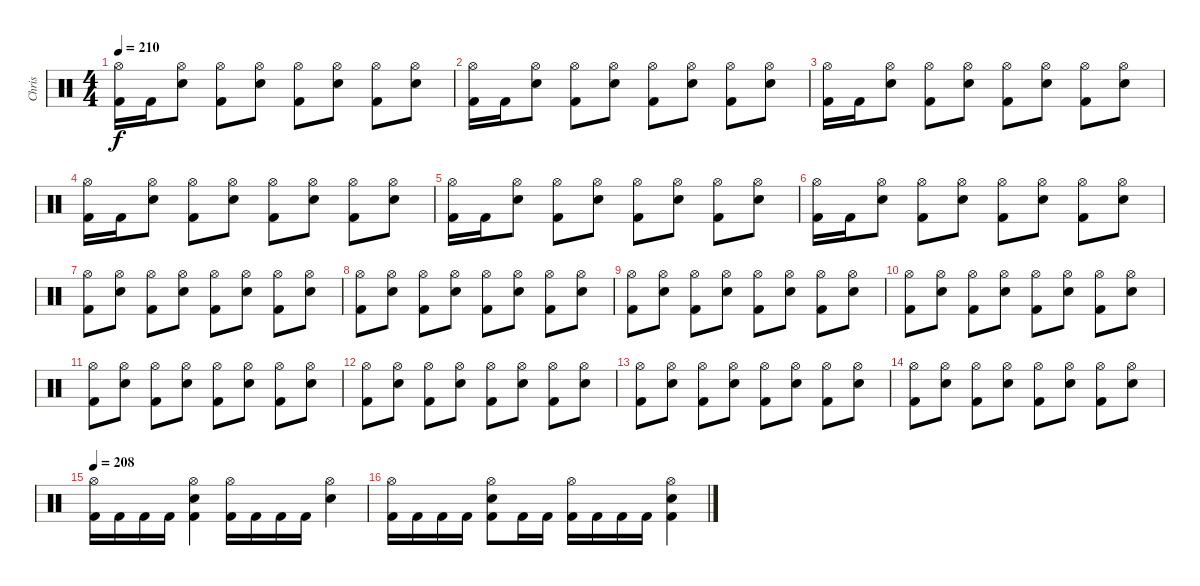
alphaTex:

\track ("Chris" "Chris") {instrument percussion}
\staff {score}
\articulation defaults
\ts (4 4)
\tempo 210
\clef neutral
\ks c
("Hi-Hat (open)" "Kick (hit) 2").16{dy f} "Kick (hit) 2".16 ("Hi-Hat (open)" "Snare (hit) 2").8 ("Hi-Hat (open)" "Kick (hit) 2").8 ("Hi-Hat (open)" "Electric Snare (hit)").8 ("Hi-Hat (open)" "Kick (hit) 2").8 ("Hi-Hat (open)" "Electric Snare (hit)").8 ("Hi-Hat (open)" "Kick (hit) 2").8 ("Hi-Hat (open)" "Electric Snare (hit)").8 |
("Hi-Hat (open)" "Kick (hit) 2").16 "Kick (hit) 2".16 ("Hi-Hat (open)" "Snare (hit) 2").8 ("Hi-Hat (open)" "Kick (hit) 2").8 ("Hi-Hat (open)" "Electric Snare (hit)").8 ("Hi-Hat (open)" "Kick (hit) 2").8 ("Hi-Hat (open)" "Electric Snare (hit)").8 ("Hi-Hat (open)" "Kick (hit) 2").8 ("Hi-Hat (open)" "Electric Snare (hit)").8 |
("Hi-Hat (open)" "Kick (hit) 2").16 "Kick (hit) 2".16 ("Hi-Hat (open)" "Snare (hit) 2").8 ("Hi-Hat (open)" "Kick (hit) 2").8 ("Hi-Hat (open)" "Electric Snare (hit)").8 ("Hi-Hat (open)" "Kick (hit) 2").8 ("Hi-Hat (open)" "Electric Snare (hit)").8 ("Hi-Hat (open)" "Kick (hit) 2").8 ("Hi-Hat (open)" "Electric Snare (hit)").8 |
("Hi-Hat (open)" "Kick (hit) 2").16 "Kick (hit) 2".16 ("Hi-Hat (open)" "Snare (hit) 2").8 ("Hi-Hat (open)" "Kick (hit) 2").8 ("Hi-Hat (open)" "Electric Snare (hit)").8 ("Hi-Hat (open)" "Kick (hit) 2").8 ("Hi-Hat (open)" "Electric Snare (hit)").8 ("Hi-Hat (open)" "Kick (hit) 2").8 ("Hi-Hat (open)" "Electric Snare (hit)").8 |
("Hi-Hat (open)" "Kick (hit) 2").16 "Kick (hit) 2".16 ("Hi-Hat (open)" "Snare (hit) 2").8 ("Hi-Hat (open)" "Kick (hit) 2").8 ("Hi-Hat (open)" "Electric Snare (hit)").8 ("Hi-Hat (open)" "Kick (hit) 2").8 ("Hi-Hat (open)" "Electric Snare (hit)").8 ("Hi-Hat (open)" "Kick (hit) 2").8 ("Hi-Hat (open)" "Electric Snare (hit)").8 |
("Hi-Hat (open)" "Kick (hit) 2").16 "Kick (hit) 2".16 ("Hi-Hat (open)" "Snare (hit) 2").8 ("Hi-Hat (open)" "Kick (hit) 2").8 ("Hi-Hat (open)" "Electric Snare (hit)").8 ("Hi-Hat (open)" "Kick (hit) 2").8 ("Hi-Hat (open)" "Electric Snare (hit)").8 ("Hi-Hat (open)" "Kick (hit) 2").8 ("Hi-Hat (open)" "Electric Snare (hit)").8 |
("Hi-Hat (open)" "Kick (hit) 2").8 ("Hi-Hat (open)" "Electric Snare (hit)").8 ("Hi-Hat (open)" "Kick (hit) 2").8 ("Hi-Hat (open)" "Electric Snare (hit)").8 ("Hi-Hat (open)" "Kick (hit) 2").8 ("Hi-Hat (open)" "Electric Snare (hit)").8 ("Hi-Hat (open)" "Kick (hit) 2").8 ("Hi-Hat (open)" "Electric Snare (hit)").8 |
("Hi-Hat (open)" "Kick (hit) 2").8 ("Hi-Hat (open)" "Electric Snare (hit)").8 ("Hi-Hat (open)" "Kick (hit) 2").8 ("Hi-Hat (open)" "Electric Snare (hit)").8 ("Hi-Hat (open)" "Kick (hit) 2").8 ("Hi-Hat (open)" "Electric Snare (hit)").8 ("Hi-Hat (open)" "Kick (hit) 2").8 ("Hi-Hat (open)" "Electric Snare (hit)").8 |
("Hi-Hat (open)" "Kick (hit) 2").8 ("Hi-Hat (open)" "Electric Snare (hit)").8 ("Hi-Hat (open)" "Kick (hit) 2").8 ("Hi-Hat (open)" "Electric Snare (hit)").8 ("Hi-Hat (open)" "Kick (hit) 2").8 ("Hi-Hat (open)" "Electric Snare (hit)").8 ("Hi-Hat (open)" "Kick (hit) 2").8 ("Hi-Hat (open)" "Electric Snare (hit)").8 |
("Hi-Hat (open)" "Kick (hit) 2").8 ("Hi-Hat (open)" "Electric Snare (hit)").8 ("Hi-Hat (open)" "Kick (hit) 2").8 ("Hi-Hat (open)" "Electric Snare (hit)").8 ("Hi-Hat (open)" "Kick (hit) 2").8 ("Hi-Hat (open)" "Electric Snare (hit)").8 ("Hi-Hat (open)" "Kick (hit) 2").8 ("Hi-Hat (open)" "Electric Snare (hit)").8 |
("Hi-Hat (open)" "Kick (hit) 2").8 ("Hi-Hat (open)" "Electric Snare (hit)").8 ("Hi-Hat (open)" "Kick (hit) 2").8 ("Hi-Hat (open)" "Electric Snare (hit)").8 ("Hi-Hat (open)" "Kick (hit) 2").8 ("Hi-Hat (open)" "Electric Snare (hit)").8 ("Hi-Hat (open)" "Kick (hit) 2").8 ("Hi-Hat (open)" "Electric Snare (hit)").8 |
("Hi-Hat (open)" "Kick (hit) 2").8 ("Hi-Hat (open)" "Electric Snare (hit)").8 ("Hi-Hat (open)" "Kick (hit) 2").8 ("Hi-Hat (open)" "Electric Snare (hit)").8 ("Hi-Hat (open)" "Kick (hit) 2").8 ("Hi-Hat (open)" "Electric Snare (hit)").8 ("Hi-Hat (open)" "Kick (hit) 2").8 ("Hi-Hat (open)" "Electric Snare (hit)").8 |
("Hi-Hat (open)" "Kick (hit) 2").8 ("Hi-Hat (open)" "Electric Snare (hit)").8 ("Hi-Hat (open)" "Kick (hit) 2").8 ("Hi-Hat (open)" "Electric Snare (hit)").8 ("Hi-Hat (open)" "Kick (hit) 2").8 ("Hi-Hat (open)" "Electric Snare (hit)").8 ("Hi-Hat (open)" "Kick (hit) 2").8 ("Hi-Hat (open)" "Electric Snare (hit)").8 |
("Hi-Hat (open)" "Kick (hit) 2").8 ("Hi-Hat (open)" "Electric Snare (hit)").8 ("Hi-Hat (open)" "Kick (hit) 2").8 ("Hi-Hat (open)" "Electric Snare (hit)").8 ("Hi-Hat (open)" "Kick (hit) 2").8 ("Hi-Hat (open)" "Electric Snare (hit)").8 ("Hi-Hat (open)" "Kick (hit) 2").8 ("Hi-Hat (open)" "Electric Snare (hit)").8 |
\tempo 208
("Hi-Hat (open)" "Kick (hit) 2").16 "Kick (hit) 2".16 "Kick (hit) 2".16 "Kick (hit) 2".16 ("Hi-Hat (open)" "Kick (hit) 2" "Electric Snare (hit)").4 ("Hi-Hat (open)" "Kick (hit) 2").16 "Kick (hit) 2".16 "Kick (hit) 2".16 "Kick (hit) 2".16 ("Hi-Hat (open)" "Electric Snare (hit)").4 |
("Hi-Hat (open)" "Kick (hit) 2").16 "Kick (hit) 2".16 "Kick (hit) 2".16 "Kick (hit) 2".16 ("Hi-Hat (open)" "Kick (hit) 2" "Electric Snare (hit)").8 "Kick (hit) 2".16 "Kick (hit) 2".16 ("Hi-Hat (open)" "Kick (hit) 2").16 "Kick (hit) 2".16 "Kick (hit) 2".16 "Kick (hit) 2".16 ("Hi-Hat (open)" "Kick (hit) 2" "Electric Snare (hit)").4
